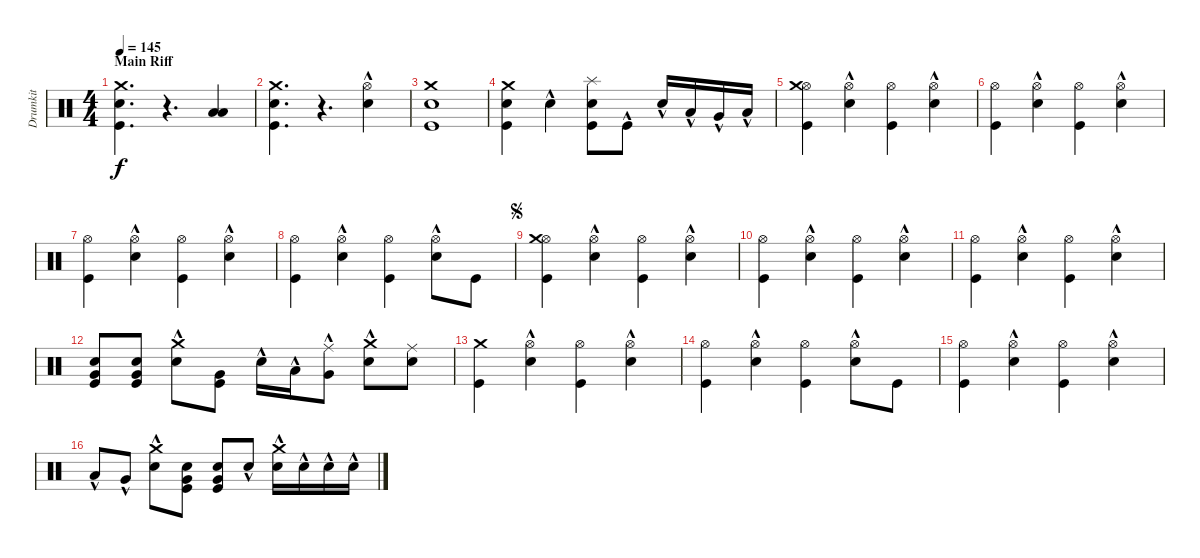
\track ("Drumkit" "Drumkit") {instrument percussion}
\staff {score}
\articulation defaults
\ts (4 4)
\section ("" "Main Riff")
\tempo 145
\clef neutral
\ks c
("Kick (hit)" "Snare (hit) 2" "Crash medium (hit)").4{d dy f} r.4{d} ("Low Tom (hit)" "Low Floor Tom (hit)").4 |
("Snare (hit) 2" "Crash medium (hit)" "Kick (hit)").4{d} r.4{d} ("Snare (hit) 2"{hac} "Hi-Hat (open)").4 |
("Snare (hit) 2" "Crash medium (hit)" "Kick (hit)").1 |
("Kick (hit)" "Snare (hit) 2" "Crash medium (hit)").4 "Snare (hit) 2"{hac}.4 ("Snare (hit) 2" "Kick (hit)" "Splash (hit)").8 "Kick (hit)"{hac}.8 "Snare (hit) 2"{hac}.16 "Low Tom (hit)"{hac}.16 "Very Low Tom (hit)"{hac}.16 "Low Floor Tom (hit)"{hac}.16 |
("Kick (hit)" "Hi-Hat (open)" "Crash medium (hit)").4 ("Snare (hit) 2"{hac} "Hi-Hat (open)").4 ("Kick (hit)" "Hi-Hat (open)").4 ("Snare (hit) 2"{hac} "Hi-Hat (open)").4 |
("Kick (hit)" "Hi-Hat (open)").4 ("Snare (hit) 2"{hac} "Hi-Hat (open)").4 ("Kick (hit)" "Hi-Hat (open)").4 ("Snare (hit) 2"{hac} "Hi-Hat (open)").4 |
("Kick (hit)" "Hi-Hat (open)").4 ("Snare (hit) 2"{hac} "Hi-Hat (open)").4 ("Kick (hit)" "Hi-Hat (open)").4 ("Snare (hit) 2"{hac} "Hi-Hat (open)").4 |
("Kick (hit)" "Hi-Hat (open)").4 ("Snare (hit) 2"{hac} "Hi-Hat (open)").4 ("Kick (hit)" "Hi-Hat (open)").4 ("Snare (hit) 2"{hac} "Hi-Hat (open)").8 "Kick (hit)".8 |
\jump segno
("Kick (hit)" "Hi-Hat (open)" "Crash medium (hit)").4 ("Snare (hit) 2"{hac} "Hi-Hat (open)").4 ("Kick (hit)" "Hi-Hat (open)").4 ("Snare (hit) 2"{hac} "Hi-Hat (open)").4 |
("Kick (hit)" "Hi-Hat (open)").4 ("Snare (hit) 2"{hac} "Hi-Hat (open)").4 ("Kick (hit)" "Hi-Hat (open)").4 ("Snare (hit) 2"{hac} "Hi-Hat (open)").4 |
("Kick (hit)" "Hi-Hat (open)").4 ("Snare (hit) 2"{hac} "Hi-Hat (open)").4 ("Kick (hit)" "Hi-Hat (open)").4 ("Snare (hit) 2"{hac} "Hi-Hat (open)").4 |
("Kick (hit)" "Very Low Tom (hit)" "Snare (hit) 2").8 ("Kick (hit)" "Very Low Tom (hit)" "Snare (hit) 2").8 ("Snare (hit) 2"{hac} "Crash medium (hit)").8 ("Kick (hit)" "Very Low Tom (hit)").8 "Snare (hit) 2"{hac}.16 "Low Tom (hit)"{hac}.16 ("Very Low Tom (hit)"{hac} "Ride (middle)").8 ("Snare (hit) 2"{hac} "Crash medium (hit)").8 ("Snare (hit) 2" "Ride (middle)").8 |
("Crash medium (hit)" "Kick (hit)").4 ("Snare (hit) 2"{hac} "Hi-Hat (open)").4 ("Kick (hit)" "Hi-Hat (open)").4 ("Snare (hit) 2"{hac} "Hi-Hat (open)").4 |
("Hi-Hat (open)" "Kick (hit)").4 ("Hi-Hat (open)" "Snare (hit) 2"{hac}).4 ("Hi-Hat (open)" "Kick (hit)").4 ("Hi-Hat (open)" "Snare (hit) 2"{hac}).8 "Kick (hit)".8 |
("Hi-Hat (open)" "Kick (hit)").4 ("Hi-Hat (open)" "Snare (hit) 2"{hac}).4 ("Hi-Hat (open)" "Kick (hit)").4 ("Hi-Hat (open)" "Snare (hit) 2"{hac}).4 |
"Low Tom (hit)"{hac}.8 "Very Low Tom (hit)"{hac}.8 ("Snare (hit) 2"{hac} "Crash medium (hit)"{hac}).8 ("Kick (hit)" "Very Low Tom (hit)" "Snare (hit) 2").8 ("Kick (hit)" "Very Low Tom (hit)" "Snare (hit) 2").8 "Snare (hit) 2"{hac}.8 ("Snare (hit) 2"{hac} "Crash medium (hit)"{hac}).16 "Snare (hit) 2"{hac}.16 "Snare (hit) 2"{hac}.16 "Snare (hit) 2"{hac}.16
